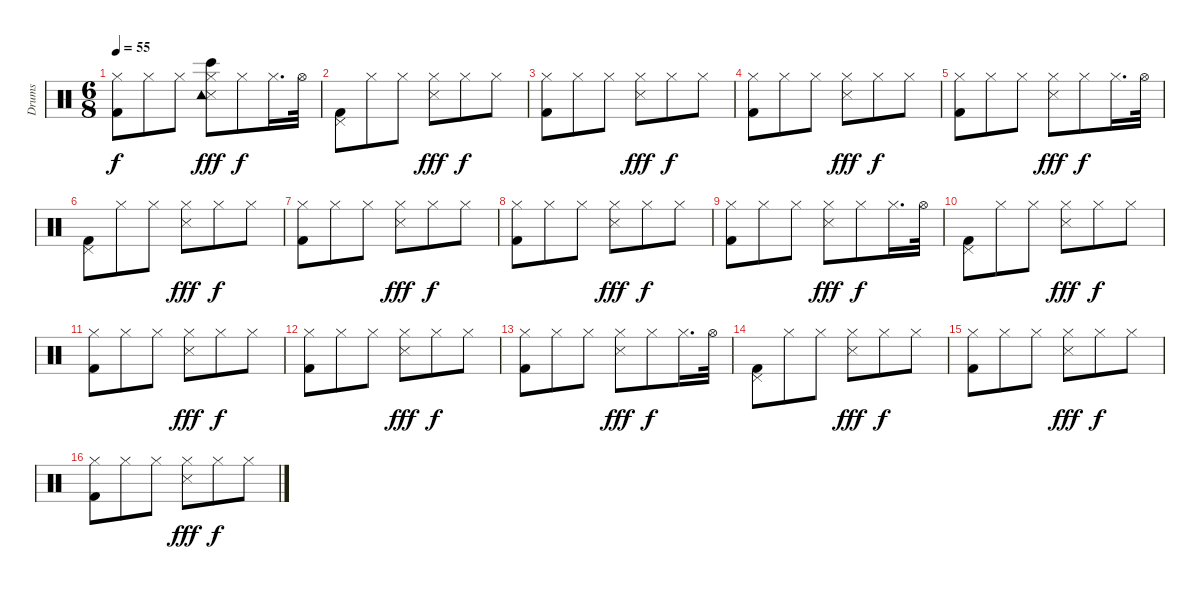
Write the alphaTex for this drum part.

\track ("Drums               " "Drums     ") {instrument percussion}
\staff {score}
\articulation defaults
\ts (6 8)
\tempo 55
\clef neutral
\ks c
("Kick (hit) 2" "Hi-Hat (closed)").8{dy f} "Hi-Hat (closed)".8 "Hi-Hat (closed)".8 ("Hi-Hat (closed)" "Snare (side stick) 3" "Bongo High (hit)" "Tambourine (hit)").8{dy fff} "Hi-Hat (closed)".8{dy f} "Hi-Hat (closed)".16{d} "Hi-Hat (open)".32 |
("Pedal Hi-Hat (hit)" "Kick (hit) 2").8 "Hi-Hat (closed)".8 "Hi-Hat (closed)".8 ("Hi-Hat (closed)" "Snare (side stick) 3").8{dy fff} "Hi-Hat (closed)".8{dy f} "Hi-Hat (closed)".8 |
("Kick (hit) 2" "Hi-Hat (closed)").8 "Hi-Hat (closed)".8 "Hi-Hat (closed)".8 ("Hi-Hat (closed)" "Snare (side stick) 3").8{dy fff} "Hi-Hat (closed)".8{dy f} "Hi-Hat (closed)".8 |
("Kick (hit) 2" "Hi-Hat (closed)").8 "Hi-Hat (closed)".8 "Hi-Hat (closed)".8 ("Hi-Hat (closed)" "Snare (side stick) 3").8{dy fff} "Hi-Hat (closed)".8{dy f} "Hi-Hat (closed)".8 |
("Kick (hit) 2" "Hi-Hat (closed)").8 "Hi-Hat (closed)".8 "Hi-Hat (closed)".8 ("Hi-Hat (closed)" "Snare (side stick) 3").8{dy fff} "Hi-Hat (closed)".8{dy f} "Hi-Hat (closed)".16{d} "Hi-Hat (open)".32 |
("Pedal Hi-Hat (hit)" "Kick (hit) 2").8 "Hi-Hat (closed)".8 "Hi-Hat (closed)".8 ("Hi-Hat (closed)" "Snare (side stick) 3").8{dy fff} "Hi-Hat (closed)".8{dy f} "Hi-Hat (closed)".8 |
("Kick (hit) 2" "Hi-Hat (closed)").8 "Hi-Hat (closed)".8 "Hi-Hat (closed)".8 ("Hi-Hat (closed)" "Snare (side stick) 3").8{dy fff} "Hi-Hat (closed)".8{dy f} "Hi-Hat (closed)".8 |
("Kick (hit) 2" "Hi-Hat (closed)").8 "Hi-Hat (closed)".8 "Hi-Hat (closed)".8 ("Hi-Hat (closed)" "Snare (side stick) 3").8{dy fff} "Hi-Hat (closed)".8{dy f} "Hi-Hat (closed)".8 |
("Kick (hit) 2" "Hi-Hat (closed)").8 "Hi-Hat (closed)".8 "Hi-Hat (closed)".8 ("Hi-Hat (closed)" "Snare (side stick) 3").8{dy fff} "Hi-Hat (closed)".8{dy f} "Hi-Hat (closed)".16{d} "Hi-Hat (open)".32 |
("Pedal Hi-Hat (hit)" "Kick (hit) 2").8 "Hi-Hat (closed)".8 "Hi-Hat (closed)".8 ("Hi-Hat (closed)" "Snare (side stick) 3").8{dy fff} "Hi-Hat (closed)".8{dy f} "Hi-Hat (closed)".8 |
("Kick (hit) 2" "Hi-Hat (closed)").8 "Hi-Hat (closed)".8 "Hi-Hat (closed)".8 ("Hi-Hat (closed)" "Snare (side stick) 3").8{dy fff} "Hi-Hat (closed)".8{dy f} "Hi-Hat (closed)".8 |
("Kick (hit) 2" "Hi-Hat (closed)").8 "Hi-Hat (closed)".8 "Hi-Hat (closed)".8 ("Hi-Hat (closed)" "Snare (side stick) 3").8{dy fff} "Hi-Hat (closed)".8{dy f} "Hi-Hat (closed)".8 |
("Kick (hit) 2" "Hi-Hat (closed)").8 "Hi-Hat (closed)".8 "Hi-Hat (closed)".8 ("Hi-Hat (closed)" "Snare (side stick) 3").8{dy fff} "Hi-Hat (closed)".8{dy f} "Hi-Hat (closed)".16{d} "Hi-Hat (open)".32 |
("Pedal Hi-Hat (hit)" "Kick (hit) 2").8 "Hi-Hat (closed)".8 "Hi-Hat (closed)".8 ("Hi-Hat (closed)" "Snare (side stick) 3").8{dy fff} "Hi-Hat (closed)".8{dy f} "Hi-Hat (closed)".8 |
("Kick (hit) 2" "Hi-Hat (closed)").8 "Hi-Hat (closed)".8 "Hi-Hat (closed)".8 ("Hi-Hat (closed)" "Snare (side stick) 3").8{dy fff} "Hi-Hat (closed)".8{dy f} "Hi-Hat (closed)".8 |
("Kick (hit) 2" "Hi-Hat (closed)").8 "Hi-Hat (closed)".8 "Hi-Hat (closed)".8 ("Hi-Hat (closed)" "Snare (side stick) 3").8{dy fff} "Hi-Hat (closed)".8{dy f} "Hi-Hat (closed)".8
